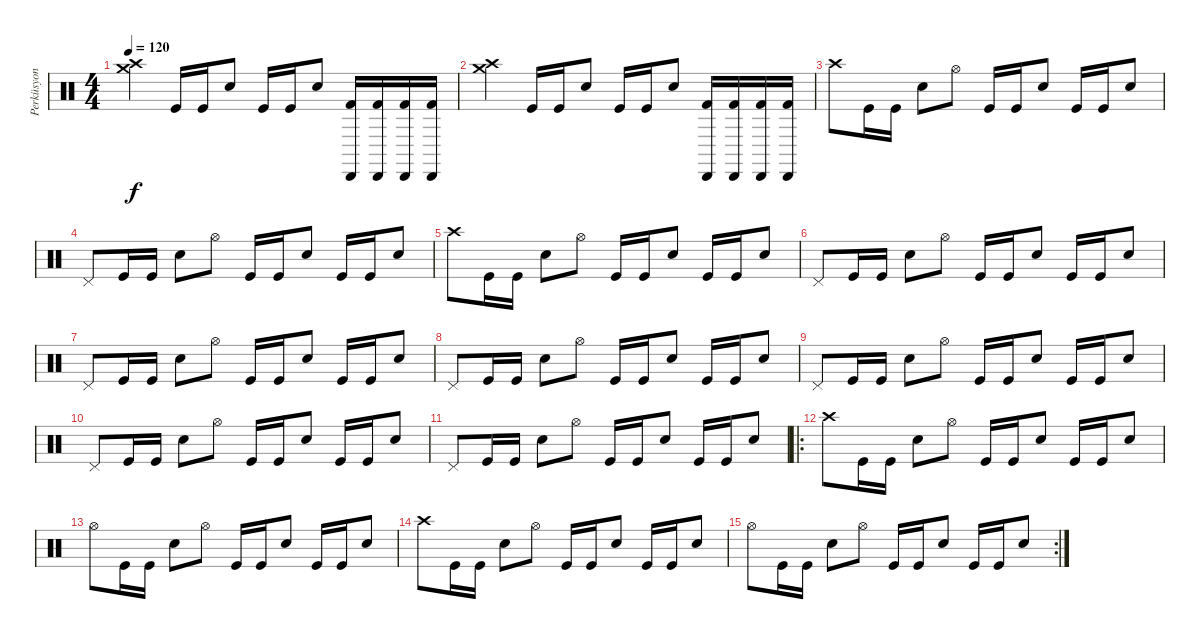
\track ("Perküsyon" "Perküsyon") {instrument percussion}
\staff {score}
\articulation defaults
\ts (4 4)
\tempo 120
\clef neutral
\ks c
("Crash high (hit)" "Crash medium (hit)").4{dy f} "Kick (hit)".16 "Kick (hit)".16 "Electric Snare (hit)".8 "Kick (hit)".16 "Kick (hit)".16 "Electric Snare (hit)".8 ("Cabasa (hit)" "Kick (hit) 2").16 ("Cabasa (hit)" "Kick (hit) 2").16 ("Cabasa (hit)" "Kick (hit) 2").16 ("Cabasa (hit)" "Kick (hit) 2").16 |
("Crash high (hit)" "Crash medium (hit)").4 "Kick (hit)".16 "Kick (hit)".16 "Electric Snare (hit)".8 "Kick (hit)".16 "Kick (hit)".16 "Electric Snare (hit)".8 ("Cabasa (hit)" "Kick (hit) 2").16 ("Cabasa (hit)" "Kick (hit) 2").16 ("Cabasa (hit)" "Kick (hit) 2").16 ("Cabasa (hit)" "Kick (hit) 2").16 |
"Crash high (hit)".8 "Kick (hit)".16 "Kick (hit)".16 "Snare (hit) 2".8 "Hi-Hat (open)".8 "Kick (hit)".16 "Kick (hit)".16 "Snare (hit) 2".8 "Kick (hit)".16 "Kick (hit)".16 "Snare (hit) 2".8 |
"Pedal Hi-Hat (hit)".8 "Kick (hit)".16 "Kick (hit)".16 "Snare (hit) 2".8 "Hi-Hat (open)".8 "Kick (hit)".16 "Kick (hit)".16 "Snare (hit) 2".8 "Kick (hit)".16 "Kick (hit)".16 "Snare (hit) 2".8 |
"Crash high (hit)".8 "Kick (hit)".16 "Kick (hit)".16 "Snare (hit) 2".8 "Hi-Hat (open)".8 "Kick (hit)".16 "Kick (hit)".16 "Snare (hit) 2".8 "Kick (hit)".16 "Kick (hit)".16 "Snare (hit) 2".8 |
"Pedal Hi-Hat (hit)".8 "Kick (hit)".16 "Kick (hit)".16 "Snare (hit) 2".8 "Hi-Hat (open)".8 "Kick (hit)".16 "Kick (hit)".16 "Snare (hit) 2".8 "Kick (hit)".16 "Kick (hit)".16 "Snare (hit) 2".8 |
"Pedal Hi-Hat (hit)".8 "Kick (hit)".16 "Kick (hit)".16 "Snare (hit) 2".8 "Hi-Hat (open)".8 "Kick (hit)".16 "Kick (hit)".16 "Snare (hit) 2".8 "Kick (hit)".16 "Kick (hit)".16 "Snare (hit) 2".8 |
"Pedal Hi-Hat (hit)".8 "Kick (hit)".16 "Kick (hit)".16 "Snare (hit) 2".8 "Hi-Hat (open)".8 "Kick (hit)".16 "Kick (hit)".16 "Snare (hit) 2".8 "Kick (hit)".16 "Kick (hit)".16 "Snare (hit) 2".8 |
"Pedal Hi-Hat (hit)".8 "Kick (hit)".16 "Kick (hit)".16 "Snare (hit) 2".8 "Hi-Hat (open)".8 "Kick (hit)".16 "Kick (hit)".16 "Snare (hit) 2".8 "Kick (hit)".16 "Kick (hit)".16 "Snare (hit) 2".8 |
"Pedal Hi-Hat (hit)".8 "Kick (hit)".16 "Kick (hit)".16 "Snare (hit) 2".8 "Hi-Hat (open)".8 "Kick (hit)".16 "Kick (hit)".16 "Snare (hit) 2".8 "Kick (hit)".16 "Kick (hit)".16 "Snare (hit) 2".8 |
"Pedal Hi-Hat (hit)".8 "Kick (hit)".16 "Kick (hit)".16 "Snare (hit) 2".8 "Hi-Hat (open)".8 "Kick (hit)".16 "Kick (hit)".16 "Snare (hit) 2".8 "Kick (hit)".16 "Kick (hit)".16 "Snare (hit) 2".8 |
\ro "Crash high (hit)".8 "Kick (hit)".16 "Kick (hit)".16 "Snare (hit) 2".8 "Hi-Hat (open)".8 "Kick (hit)".16 "Kick (hit)".16 "Snare (hit) 2".8 "Kick (hit)".16 "Kick (hit)".16 "Snare (hit) 2".8
|
"Hi-Hat (open)".8 "Kick (hit)".16 "Kick (hit)".16 "Snare (hit) 2".8 "Hi-Hat (open)".8 "Kick (hit)".16 "Kick (hit)".16 "Snare (hit) 2".8 "Kick (hit)".16 "Kick (hit)".16 "Snare (hit) 2".8 |
"Crash high (hit)".8 "Kick (hit)".16 "Kick (hit)".16 "Snare (hit) 2".8 "Hi-Hat (open)".8 "Kick (hit)".16 "Kick (hit)".16 "Snare (hit) 2".8 "Kick (hit)".16 "Kick (hit)".16 "Snare (hit) 2".8 |
\rc 2 "Hi-Hat (open)".8 "Kick (hit)".16 "Kick (hit)".16 "Snare (hit) 2".8 "Hi-Hat (open)".8 "Kick (hit)".16 "Kick (hit)".16 "Snare (hit) 2".8 "Kick (hit)".16 "Kick (hit)".16 "Snare (hit) 2".8
